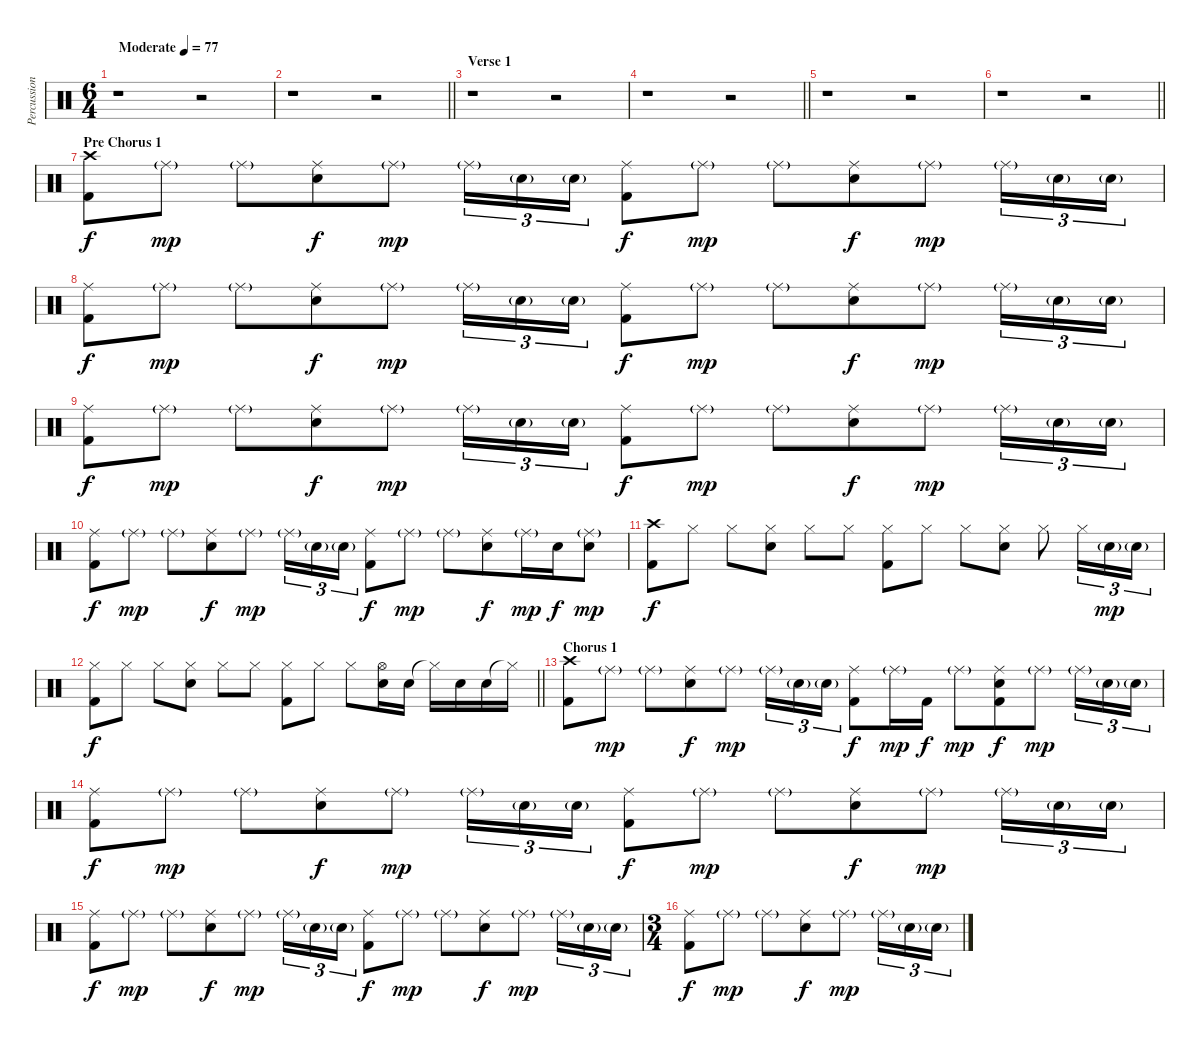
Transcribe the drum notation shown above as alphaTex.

\track ("Percussion" "Percussion") {instrument percussion}
\staff {score}
\articulation defaults
\ts (6 4)
\tempo (77 "Moderate")
\clef neutral
\ks c
r.1{dy f} r.2 |
\barLineRight lightlight
r.1{beam merge} r.2 |
\section ("" "Verse 1")
r.1{beam merge} r.2 |
\barLineRight lightlight
r.1 r.2 |
r.1{beam merge} r.2 |
\barLineRight lightlight
r.1 r.2 |
\section ("" "Pre Chorus 1")
("Crash high (hit)" "Kick (hit) 2").8{beam merge} "Ride (middle)"{g}.8{dy mp} "Ride (middle)"{g}.8{beam merge} ("Ride (middle)" "Electric Snare (hit)").8{dy f beam merge} "Ride (middle)"{g}.8{dy mp} "Ride (middle)"{g}.16{tu (3 2)} "Electric Snare (hit)"{g}.16{tu (3 2)} "Electric Snare (hit)"{g}.16{tu (3 2)} ("Ride (middle)" "Kick (hit) 2").8{dy f beam merge} "Ride (middle)"{g}.8{dy mp} "Ride (middle)"{g}.8{beam merge} ("Ride (middle)" "Electric Snare (hit)").8{dy f beam merge} "Ride (middle)"{g}.8{dy mp} "Ride (middle)"{g}.16{tu (3 2)} "Electric Snare (hit)"{g}.16{tu (3 2)} "Electric Snare (hit)"{g}.16{tu (3 2)} |
("Ride (middle)" "Kick (hit) 2").8{dy f beam merge} "Ride (middle)"{g}.8{dy mp} "Ride (middle)"{g}.8{beam merge} ("Ride (middle)" "Electric Snare (hit)").8{dy f beam merge} "Ride (middle)"{g}.8{dy mp} "Ride (middle)"{g}.16{tu (3 2)} "Electric Snare (hit)"{g}.16{tu (3 2)} "Electric Snare (hit)"{g}.16{tu (3 2)} ("Ride (middle)" "Kick (hit) 2").8{dy f beam merge} "Ride (middle)"{g}.8{dy mp} "Ride (middle)"{g}.8{beam merge} ("Ride (middle)" "Electric Snare (hit)").8{dy f beam merge} "Ride (middle)"{g}.8{dy mp} "Ride (middle)"{g}.16{tu (3 2)} "Electric Snare (hit)"{g}.16{tu (3 2)} "Electric Snare (hit)"{g}.16{tu (3 2)} |
("Ride (middle)" "Kick (hit) 2").8{dy f beam merge} "Ride (middle)"{g}.8{dy mp} "Ride (middle)"{g}.8{beam merge} ("Ride (middle)" "Electric Snare (hit)").8{dy f beam merge} "Ride (middle)"{g}.8{dy mp} "Ride (middle)"{g}.16{tu (3 2)} "Electric Snare (hit)"{g}.16{tu (3 2)} "Electric Snare (hit)"{g}.16{tu (3 2)} ("Ride (middle)" "Kick (hit) 2").8{dy f beam merge} "Ride (middle)"{g}.8{dy mp} "Ride (middle)"{g}.8{beam merge} ("Ride (middle)" "Electric Snare (hit)").8{dy f beam merge} "Ride (middle)"{g}.8{dy mp} "Ride (middle)"{g}.16{tu (3 2)} "Electric Snare (hit)"{g}.16{tu (3 2)} "Electric Snare (hit)"{g}.16{tu (3 2)} |
("Ride (middle)" "Kick (hit) 2").8{dy f beam merge} "Ride (middle)"{g}.8{dy mp} "Ride (middle)"{g}.8{beam merge} ("Ride (middle)" "Electric Snare (hit)").8{dy f beam merge} "Ride (middle)"{g}.8{dy mp} "Ride (middle)"{g}.16{tu (3 2)} "Electric Snare (hit)"{g}.16{tu (3 2)} "Electric Snare (hit)"{g}.16{tu (3 2)} ("Ride (middle)" "Kick (hit) 2").8{dy f beam merge} "Ride (middle)"{g}.8{dy mp} "Ride (middle)"{g}.8{beam merge} ("Ride (middle)" "Electric Snare (hit)").8{dy f beam merge} "Ride (middle)"{g}.16{dy mp} "Electric Snare (hit)".16{dy f} ("Ride (middle)"{g} "Electric Snare (hit)").8{dy mp} |
("Crash high (hit)" "Kick (hit) 2").8{dy f beam merge} "Hi-Hat (closed)".8 "Hi-Hat (closed)".8 ("Hi-Hat (closed)" "Electric Snare (hit)").8 "Hi-Hat (closed)".8 "Hi-Hat (closed)".8 ("Hi-Hat (closed)" "Kick (hit) 2").8 "Hi-Hat (closed)".8 "Hi-Hat (closed)".8 ("Hi-Hat (closed)" "Electric Snare (hit)").8 "Hi-Hat (closed)".8 "Hi-Hat (closed)".16{tu (3 2)} "Electric Snare (hit)"{g}.16{tu (3 2) dy mp} "Electric Snare (hit)"{g}.16{tu (3 2)} |
\barLineRight lightlight
("Hi-Hat (closed)" "Kick (hit) 2").8{dy f beam merge} "Hi-Hat (closed)".8 "Hi-Hat (closed)".8 ("Hi-Hat (closed)" "Electric Snare (hit)").8 "Hi-Hat (closed)".8 "Hi-Hat (closed)".8 ("Hi-Hat (closed)" "Kick (hit) 2").8 "Hi-Hat (closed)".8 "Hi-Hat (closed)".8 ("Hi-Hat (open)" "Electric Snare (hit)").16{beam merge} "Electric Snare (hit)".16 "Hi-Hat (closed)"{t}.16 "Electric Snare (hit)".16{beam merge} "Electric Snare (hit)".16 "Hi-Hat (closed)"{t}.16 |
\section ("" "Chorus 1")
("Crash high (hit)" "Kick (hit) 2").8{beam merge} "Ride (middle)"{g}.8{dy mp} "Ride (middle)"{g}.8{beam merge} ("Ride (middle)" "Electric Snare (hit)").8{dy f beam merge} "Ride (middle)"{g}.8{dy mp} "Ride (middle)"{g}.16{tu (3 2)} "Electric Snare (hit)"{g}.16{tu (3 2)} "Electric Snare (hit)"{g}.16{tu (3 2)} ("Ride (middle)" "Kick (hit) 2").8{dy f beam merge} "Ride (middle)"{g}.16{dy mp beam merge} "Kick (hit) 2".16{dy f} "Ride (middle)"{g}.8{dy mp beam merge} ("Ride (middle)" "Electric Snare (hit)" "Kick (hit) 2").8{dy f beam merge} "Ride (middle)"{g}.8{dy mp} "Ride (middle)"{g}.16{tu (3 2)} "Electric Snare (hit)"{g}.16{tu (3 2)} "Electric Snare (hit)"{g}.16{tu (3 2)} |
("Ride (middle)" "Kick (hit) 2").8{dy f beam merge} "Ride (middle)"{g}.8{dy mp} "Ride (middle)"{g}.8{beam merge} ("Ride (middle)" "Electric Snare (hit)").8{dy f beam merge} "Ride (middle)"{g}.8{dy mp} "Ride (middle)"{g}.16{tu (3 2)} "Electric Snare (hit)"{g}.16{tu (3 2)} "Electric Snare (hit)"{g}.16{tu (3 2)} ("Ride (middle)" "Kick (hit) 2").8{dy f beam merge} "Ride (middle)"{g}.8{dy mp} "Ride (middle)"{g}.8{beam merge} ("Ride (middle)" "Electric Snare (hit)").8{dy f beam merge} "Ride (middle)"{g}.8{dy mp} "Ride (middle)"{g}.16{tu (3 2)} "Electric Snare (hit)"{g}.16{tu (3 2)} "Electric Snare (hit)"{g}.16{tu (3 2)} |
("Ride (middle)" "Kick (hit) 2").8{dy f beam merge} "Ride (middle)"{g}.8{dy mp} "Ride (middle)"{g}.8{beam merge} ("Ride (middle)" "Electric Snare (hit)").8{dy f beam merge} "Ride (middle)"{g}.8{dy mp} "Ride (middle)"{g}.16{tu (3 2)} "Electric Snare (hit)"{g}.16{tu (3 2)} "Electric Snare (hit)"{g}.16{tu (3 2)} ("Ride (middle)" "Kick (hit) 2").8{dy f beam merge} "Ride (middle)"{g}.8{dy mp} "Ride (middle)"{g}.8{beam merge} ("Ride (middle)" "Electric Snare (hit)").8{dy f beam merge} "Ride (middle)"{g}.8{dy mp} "Ride (middle)"{g}.16{tu (3 2)} "Electric Snare (hit)"{g}.16{tu (3 2)} "Electric Snare (hit)"{g}.16{tu (3 2)} |
\ts (3 4)
("Ride (middle)" "Kick (hit) 2").8{dy f beam merge} "Ride (middle)"{g}.8{dy mp} "Ride (middle)"{g}.8{beam merge} ("Ride (middle)" "Electric Snare (hit)").8{dy f beam merge} "Ride (middle)"{g}.8{dy mp} "Ride (middle)"{g}.16{tu (3 2)} "Electric Snare (hit)"{g}.16{tu (3 2)} "Electric Snare (hit)"{g}.16{tu (3 2)}
